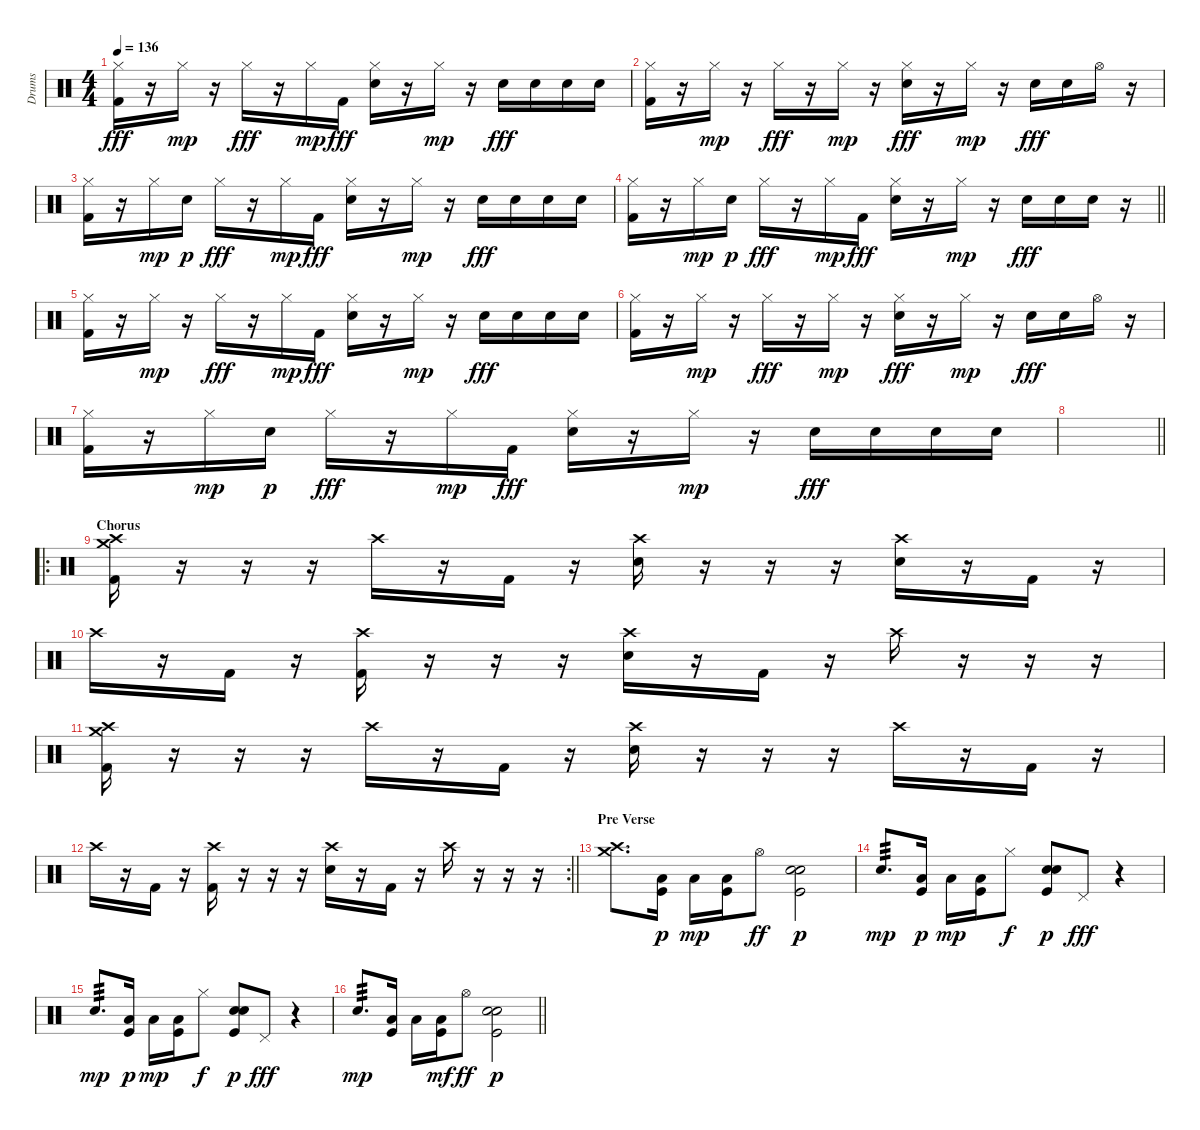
\track ("Drums" "Drums") {instrument percussion}
\staff {score}
\articulation defaults
\ts (4 4)
\tempo 136
\clef neutral
\ks c
("Hi-Hat (closed)" "Kick (hit) 2").16{dy fff volume 13} r.16 "Hi-Hat (closed)".16{dy mp} r.16 "Hi-Hat (closed)".16{dy fff} r.16 "Hi-Hat (closed)".16{dy mp} "Kick (hit) 2".16{dy fff} ("Hi-Hat (closed)" "Electric Snare (hit)").16 r.16 "Hi-Hat (closed)".16{dy mp} r.16 "Electric Snare (hit)".16{dy fff} "Electric Snare (hit)".16 "Electric Snare (hit)".16 "Electric Snare (hit)".16 |
("Hi-Hat (closed)" "Kick (hit) 2").16 r.16 "Hi-Hat (closed)".16{dy mp} r.16 "Hi-Hat (closed)".16{dy fff} r.16 "Hi-Hat (closed)".16{dy mp} r.16 ("Hi-Hat (closed)" "Electric Snare (hit)").16{dy fff} r.16 "Hi-Hat (closed)".16{dy mp} r.16 "Electric Snare (hit)".16{dy fff} "Electric Snare (hit)".16 "Hi-Hat (open)".16 r.16 |
("Hi-Hat (closed)" "Kick (hit) 2").16 r.16 "Hi-Hat (closed)".16{dy mp} "Electric Snare (hit)".16{dy p} "Hi-Hat (closed)".16{dy fff} r.16 "Hi-Hat (closed)".16{dy mp} "Kick (hit) 2".16{dy fff} ("Hi-Hat (closed)" "Electric Snare (hit)").16 r.16 "Hi-Hat (closed)".16{dy mp} r.16 "Electric Snare (hit)".16{dy fff} "Electric Snare (hit)".16 "Electric Snare (hit)".16 "Electric Snare (hit)".16 |
\barLineRight lightlight
("Hi-Hat (closed)" "Kick (hit) 2").16 r.16 "Hi-Hat (closed)".16{dy mp} "Electric Snare (hit)".16{dy p} "Hi-Hat (closed)".16{dy fff} r.16 "Hi-Hat (closed)".16{dy mp} "Kick (hit) 2".16{dy fff} ("Hi-Hat (closed)" "Electric Snare (hit)").16 r.16 "Hi-Hat (closed)".16{dy mp} r.16 "Electric Snare (hit)".16{dy fff} "Electric Snare (hit)".16 "Electric Snare (hit)".16 r.16 |
("Hi-Hat (closed)" "Kick (hit) 2").16 r.16 "Hi-Hat (closed)".16{dy mp} r.16 "Hi-Hat (closed)".16{dy fff} r.16 "Hi-Hat (closed)".16{dy mp} "Kick (hit) 2".16{dy fff} ("Hi-Hat (closed)" "Electric Snare (hit)").16 r.16 "Hi-Hat (closed)".16{dy mp} r.16 "Electric Snare (hit)".16{dy fff} "Electric Snare (hit)".16 "Electric Snare (hit)".16 "Electric Snare (hit)".16 |
("Hi-Hat (closed)" "Kick (hit) 2").16 r.16 "Hi-Hat (closed)".16{dy mp} r.16 "Hi-Hat (closed)".16{dy fff} r.16 "Hi-Hat (closed)".16{dy mp} r.16 ("Hi-Hat (closed)" "Electric Snare (hit)").16{dy fff} r.16 "Hi-Hat (closed)".16{dy mp} r.16 "Electric Snare (hit)".16{dy fff} "Electric Snare (hit)".16 "Hi-Hat (open)".16 r.16 |
("Hi-Hat (closed)" "Kick (hit) 2").16 r.16 "Hi-Hat (closed)".16{dy mp} "Electric Snare (hit)".16{dy p} "Hi-Hat (closed)".16{dy fff} r.16 "Hi-Hat (closed)".16{dy mp} "Kick (hit) 2".16{dy fff} ("Hi-Hat (closed)" "Electric Snare (hit)").16 r.16 "Hi-Hat (closed)".16{dy mp} r.16 "Electric Snare (hit)".16{dy fff} "Electric Snare (hit)".16 "Electric Snare (hit)".16 "Electric Snare (hit)".16 |
\barLineRight lightlight
|
\ro
\section ("" "Chorus")
("Crash medium (hit)" "Crash high (hit)" "Kick (hit) 2").16 r.16 r.16 r.16 "Crash high (hit)".16 r.16 "Kick (hit) 2".16 r.16 ("Crash high (hit)" "Electric Snare (hit)").16 r.16 r.16 r.16 ("Crash high (hit)" "Electric Snare (hit)").16 r.16 "Kick (hit) 2".16 r.16 |
"Crash high (hit)".16 r.16 "Kick (hit) 2".16 r.16 ("Crash high (hit)" "Kick (hit) 2").16 r.16 r.16 r.16 ("Crash high (hit)" "Electric Snare (hit)").16 r.16 "Kick (hit) 2".16 r.16 "Crash high (hit)".16 r.16 r.16 r.16 |
("Crash medium (hit)" "Crash high (hit)" "Kick (hit) 2").16 r.16 r.16 r.16 "Crash high (hit)".16 r.16 "Kick (hit) 2".16 r.16 ("Crash high (hit)" "Electric Snare (hit)").16 r.16 r.16 r.16 "Crash high (hit)".16 r.16 "Kick (hit) 2".16 r.16 |
\rc 2
\barLineRight lightlight "Crash high (hit)".16
r.16 "Kick (hit) 2".16 r.16 ("Crash high (hit)" "Kick (hit) 2").16 r.16 r.16 r.16 ("Crash high (hit)" "Electric Snare (hit)").16 r.16 "Kick (hit) 2".16 r.16 "Crash high (hit)".16 r.16 r.16 r.16 |
\section ("" "Pre Verse")
("Crash high (hit)" "Crash medium (hit)").8{d} ("Low Tom (hit)" "Kick (hit)").16{dy p volume 9} "Low Tom (hit)".16{dy mp} ("Low Tom (hit)" "Kick (hit)").16 "Hi-Hat (open)".8{dy ff} ("Hand Clap (hit)" "Electric Snare (hit)" "Kick (hit)").2{dy p} |
"Electric Snare (hit)".8{d tp 3 dy mp} ("Low Tom (hit)" "Kick (hit)").16{dy p} "Low Tom (hit)".16{dy mp} ("Low Tom (hit)" "Kick (hit)").16 "Hi-Hat (closed)".8{dy f} ("Hand Clap (hit)" "Electric Snare (hit)" "Kick (hit)").8{dy p} "Pedal Hi-Hat (hit)".8{dy fff} r.4 |
"Electric Snare (hit)".8{d tp 3 dy mp} ("Low Tom (hit)" "Kick (hit)").16{dy p} "Low Tom (hit)".16{dy mp} ("Low Tom (hit)" "Kick (hit)").16 "Hi-Hat (closed)".8{dy f} ("Hand Clap (hit)" "Electric Snare (hit)" "Kick (hit)").8{dy p} "Pedal Hi-Hat (hit)".8{dy fff} r.4 |
\barLineRight lightlight "Electric Snare (hit)".8{d tp 3 dy mp}
("Low Tom (hit)" "Kick (hit)").16 "Low Tom (hit)".16 ("Low Tom (hit)" "Kick (hit)").16{dy mf} "Hi-Hat (open)".8{dy ff} ("Hand Clap (hit)" "Electric Snare (hit)" "Kick (hit)").2{dy p}
